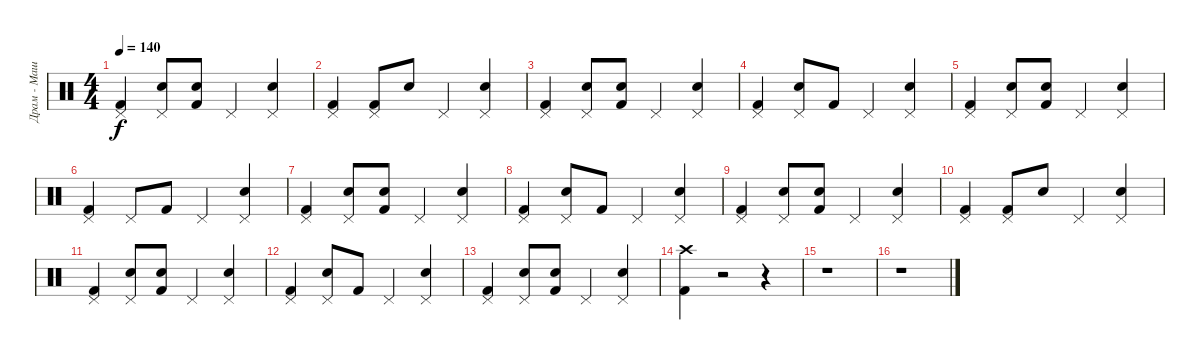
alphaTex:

\track ("Драм - Машина" "Драм - Маш") {instrument percussion}
\staff {score}
\articulation defaults
\ts (4 4)
\tempo 140
\clef neutral
\ks c
("Kick (hit) 2" "Pedal Hi-Hat (hit)").4{dy f} ("Electric Snare (hit)" "Pedal Hi-Hat (hit)").8 ("Kick (hit) 2" "Electric Snare (hit)").8 "Pedal Hi-Hat (hit)".4 ("Electric Snare (hit)" "Pedal Hi-Hat (hit)").4 |
("Kick (hit) 2" "Pedal Hi-Hat (hit)").4 ("Pedal Hi-Hat (hit)" "Kick (hit) 2").8 "Electric Snare (hit)".8 "Pedal Hi-Hat (hit)".4 ("Electric Snare (hit)" "Pedal Hi-Hat (hit)").4 |
("Kick (hit) 2" "Pedal Hi-Hat (hit)").4 ("Electric Snare (hit)" "Pedal Hi-Hat (hit)").8 ("Kick (hit) 2" "Electric Snare (hit)").8 "Pedal Hi-Hat (hit)".4 ("Electric Snare (hit)" "Pedal Hi-Hat (hit)").4 |
("Kick (hit) 2" "Pedal Hi-Hat (hit)").4 ("Pedal Hi-Hat (hit)" "Electric Snare (hit)").8 "Kick (hit) 2".8 "Pedal Hi-Hat (hit)".4 ("Electric Snare (hit)" "Pedal Hi-Hat (hit)").4 |
("Kick (hit) 2" "Pedal Hi-Hat (hit)").4 ("Electric Snare (hit)" "Pedal Hi-Hat (hit)").8 ("Kick (hit) 2" "Electric Snare (hit)").8 "Pedal Hi-Hat (hit)".4 ("Electric Snare (hit)" "Pedal Hi-Hat (hit)").4 |
("Kick (hit) 2" "Pedal Hi-Hat (hit)").4 "Pedal Hi-Hat (hit)".8 "Kick (hit) 2".8 "Pedal Hi-Hat (hit)".4 ("Electric Snare (hit)" "Pedal Hi-Hat (hit)").4 |
("Kick (hit) 2" "Pedal Hi-Hat (hit)").4 ("Electric Snare (hit)" "Pedal Hi-Hat (hit)").8 ("Kick (hit) 2" "Electric Snare (hit)").8 "Pedal Hi-Hat (hit)".4 ("Electric Snare (hit)" "Pedal Hi-Hat (hit)").4 |
("Kick (hit) 2" "Pedal Hi-Hat (hit)").4 ("Pedal Hi-Hat (hit)" "Electric Snare (hit)").8 "Kick (hit) 2".8 "Pedal Hi-Hat (hit)".4 ("Electric Snare (hit)" "Pedal Hi-Hat (hit)").4 |
("Kick (hit) 2" "Pedal Hi-Hat (hit)").4 ("Electric Snare (hit)" "Pedal Hi-Hat (hit)").8 ("Kick (hit) 2" "Electric Snare (hit)").8 "Pedal Hi-Hat (hit)".4 ("Electric Snare (hit)" "Pedal Hi-Hat (hit)").4 |
("Kick (hit) 2" "Pedal Hi-Hat (hit)").4 ("Pedal Hi-Hat (hit)" "Kick (hit) 2").8 "Electric Snare (hit)".8 "Pedal Hi-Hat (hit)".4 ("Electric Snare (hit)" "Pedal Hi-Hat (hit)").4 |
("Kick (hit) 2" "Pedal Hi-Hat (hit)").4 ("Electric Snare (hit)" "Pedal Hi-Hat (hit)").8 ("Kick (hit) 2" "Electric Snare (hit)").8 "Pedal Hi-Hat (hit)".4 ("Electric Snare (hit)" "Pedal Hi-Hat (hit)").4 |
("Kick (hit) 2" "Pedal Hi-Hat (hit)").4 ("Pedal Hi-Hat (hit)" "Electric Snare (hit)").8 "Kick (hit) 2".8 "Pedal Hi-Hat (hit)".4 ("Electric Snare (hit)" "Pedal Hi-Hat (hit)").4 |
("Kick (hit) 2" "Pedal Hi-Hat (hit)").4 ("Electric Snare (hit)" "Pedal Hi-Hat (hit)").8 ("Kick (hit) 2" "Electric Snare (hit)").8 "Pedal Hi-Hat (hit)".4 ("Electric Snare (hit)" "Pedal Hi-Hat (hit)").4 |
("Kick (hit) 2" "Crash high (hit)").4 r.2 r.4 |
r.1 |
r.1
